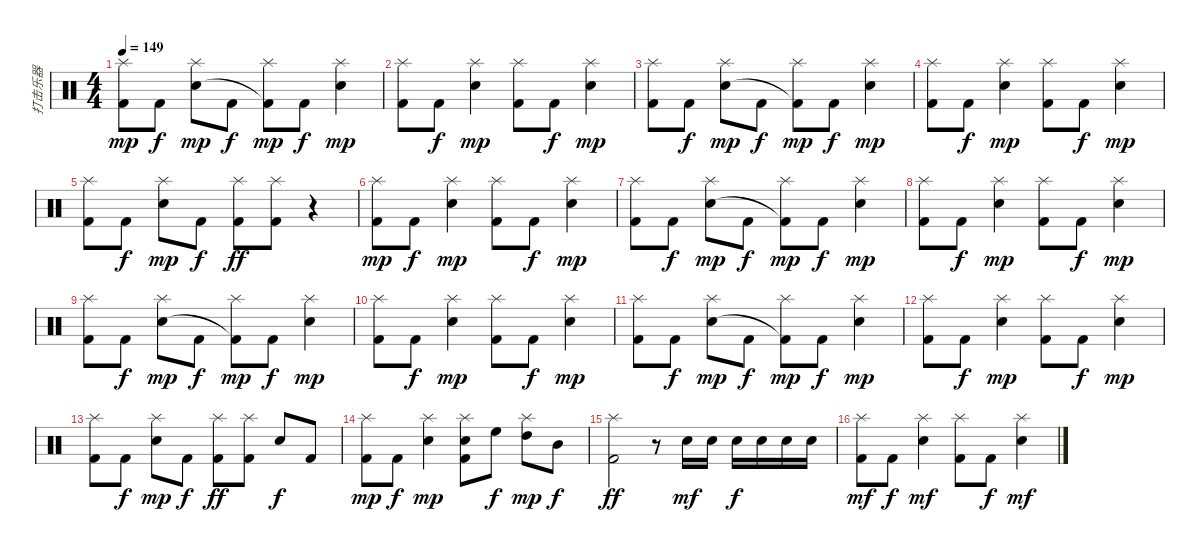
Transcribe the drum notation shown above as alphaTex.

\track ("打击乐器" "打击乐器") {instrument percussion}
\staff {score}
\articulation defaults
\ts (4 4)
\tempo 149
\clef neutral
\ks c
("Splash (hit)" "Kick (hit) 2").8{dy mp} "Kick (hit) 2".8{dy f} ("Splash (hit)" "Electric Snare (hit)").8{dy mp} "Kick (hit) 2".8{dy f} ("Splash (hit)" "Kick (hit) 2"{t}).8{dy mp} "Kick (hit) 2".8{dy f} ("Splash (hit)" "Electric Snare (hit)").4{dy mp} |
("Splash (hit)" "Kick (hit) 2").8 "Kick (hit) 2".8{dy f} ("Splash (hit)" "Electric Snare (hit)").4{dy mp} ("Splash (hit)" "Kick (hit) 2").8 "Kick (hit) 2".8{dy f} ("Splash (hit)" "Electric Snare (hit)").4{dy mp} |
("Splash (hit)" "Kick (hit) 2").8 "Kick (hit) 2".8{dy f} ("Splash (hit)" "Electric Snare (hit)").8{dy mp} "Kick (hit) 2".8{dy f} ("Splash (hit)" "Kick (hit) 2"{t}).8{dy mp} "Kick (hit) 2".8{dy f} ("Splash (hit)" "Electric Snare (hit)").4{dy mp} |
("Splash (hit)" "Kick (hit) 2").8 "Kick (hit) 2".8{dy f} ("Splash (hit)" "Electric Snare (hit)").4{dy mp} ("Splash (hit)" "Kick (hit) 2").8 "Kick (hit) 2".8{dy f} ("Splash (hit)" "Electric Snare (hit)").4{dy mp} |
("Splash (hit)" "Kick (hit) 2").8 "Kick (hit) 2".8{dy f} ("Splash (hit)" "Electric Snare (hit)").8{dy mp} "Kick (hit) 2".8{dy f} ("Splash (hit)" "Kick (hit) 2").8{dy ff} ("Splash (hit)" "Kick (hit) 2").8 r.4 |
("Splash (hit)" "Kick (hit) 2").8{dy mp} "Kick (hit) 2".8{dy f} ("Splash (hit)" "Electric Snare (hit)").4{dy mp} ("Splash (hit)" "Kick (hit) 2").8 "Kick (hit) 2".8{dy f} ("Splash (hit)" "Electric Snare (hit)").4{dy mp} |
("Splash (hit)" "Kick (hit) 2").8 "Kick (hit) 2".8{dy f} ("Splash (hit)" "Electric Snare (hit)").8{dy mp} "Kick (hit) 2".8{dy f} ("Splash (hit)" "Kick (hit) 2"{t}).8{dy mp} "Kick (hit) 2".8{dy f} ("Splash (hit)" "Electric Snare (hit)").4{dy mp} |
("Splash (hit)" "Kick (hit) 2").8 "Kick (hit) 2".8{dy f} ("Splash (hit)" "Electric Snare (hit)").4{dy mp} ("Splash (hit)" "Kick (hit) 2").8 "Kick (hit) 2".8{dy f} ("Splash (hit)" "Electric Snare (hit)").4{dy mp} |
("Splash (hit)" "Kick (hit) 2").8 "Kick (hit) 2".8{dy f} ("Splash (hit)" "Electric Snare (hit)").8{dy mp} "Kick (hit) 2".8{dy f} ("Splash (hit)" "Kick (hit) 2"{t}).8{dy mp} "Kick (hit) 2".8{dy f} ("Splash (hit)" "Electric Snare (hit)").4{dy mp} |
("Splash (hit)" "Kick (hit) 2").8 "Kick (hit) 2".8{dy f} ("Splash (hit)" "Electric Snare (hit)").4{dy mp} ("Splash (hit)" "Kick (hit) 2").8 "Kick (hit) 2".8{dy f} ("Splash (hit)" "Electric Snare (hit)").4{dy mp} |
("Splash (hit)" "Kick (hit) 2").8 "Kick (hit) 2".8{dy f} ("Splash (hit)" "Electric Snare (hit)").8{dy mp} "Kick (hit) 2".8{dy f} ("Splash (hit)" "Kick (hit) 2"{t}).8{dy mp} "Kick (hit) 2".8{dy f} ("Splash (hit)" "Electric Snare (hit)").4{dy mp} |
("Splash (hit)" "Kick (hit) 2").8 "Kick (hit) 2".8{dy f} ("Splash (hit)" "Electric Snare (hit)").4{dy mp} ("Splash (hit)" "Kick (hit) 2").8 "Kick (hit) 2".8{dy f} ("Splash (hit)" "Electric Snare (hit)").4{dy mp} |
("Splash (hit)" "Kick (hit) 2").8 "Kick (hit) 2".8{dy f} ("Splash (hit)" "Electric Snare (hit)").8{dy mp} "Kick (hit) 2".8{dy f} ("Splash (hit)" "Kick (hit) 2").8{dy ff} ("Splash (hit)" "Kick (hit) 2").8 "Electric Snare (hit)".8{dy f} "Kick (hit) 2".8 |
("Splash (hit)" "Kick (hit) 2").8{dy mp} "Kick (hit) 2".8{dy f} ("Splash (hit)" "Electric Snare (hit)").4{dy mp} ("Splash (hit)" "Electric Snare (hit)" "Kick (hit) 2").8 "High Floor Tom (hit)".8{dy f} ("Splash (hit)" "High Tom (hit)").8{dy mp} "Mid Tom (hit)".8{dy f} |
("Splash (hit)" "Kick (hit) 2").2{dy ff} r.8 "Electric Snare (hit)".16{dy mf} "Electric Snare (hit)".16 "Electric Snare (hit)".16{dy f} "Electric Snare (hit)".16 "Electric Snare (hit)".16 "Electric Snare (hit)".16 |
("Splash (hit)" "Kick (hit) 2").8{dy mf} "Kick (hit) 2".8{dy f} ("Splash (hit)" "Electric Snare (hit)").4{dy mf} ("Splash (hit)" "Kick (hit) 2").8 "Kick (hit) 2".8{dy f} ("Splash (hit)" "Electric Snare (hit)").4{dy mf}
